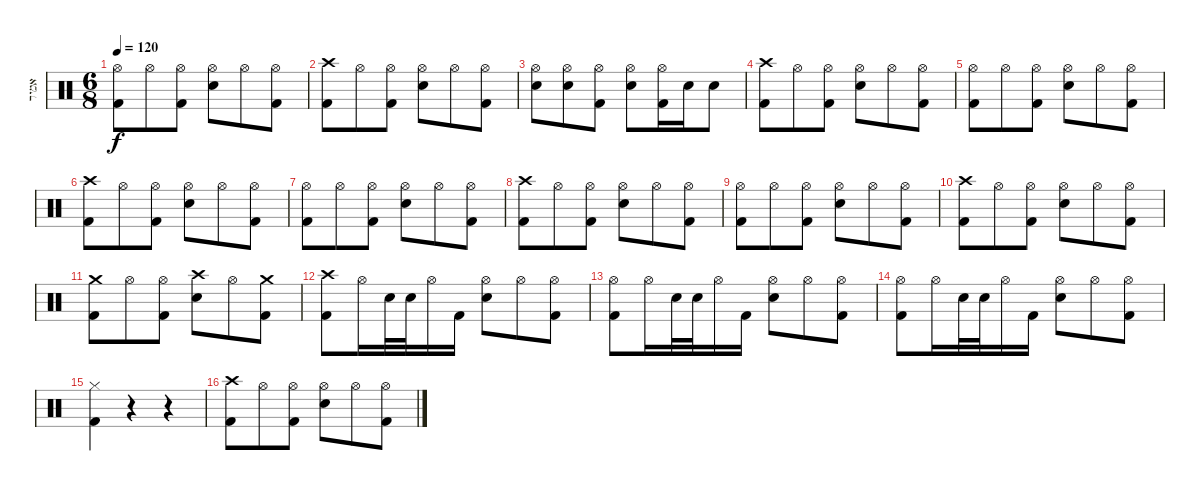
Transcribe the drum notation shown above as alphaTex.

\track ("אמיר" "אמיר") {instrument percussion}
\staff {score}
\articulation defaults
\ts (6 8)
\tempo 120
\clef neutral
\ks c
("Hi-Hat (open)" "Kick (hit) 2").8{dy f} "Hi-Hat (open)".8 ("Hi-Hat (open)" "Kick (hit) 2").8 ("Hi-Hat (open)" "Snare (hit) 2").8 "Hi-Hat (open)".8 ("Hi-Hat (open)" "Kick (hit) 2").8 |
("Crash high (hit)" "Kick (hit) 2").8 "Hi-Hat (open)".8 ("Hi-Hat (open)" "Kick (hit) 2").8 ("Hi-Hat (open)" "Snare (hit) 2").8 "Hi-Hat (open)".8 ("Hi-Hat (open)" "Kick (hit) 2").8 |
("Hi-Hat (open)" "Snare (hit) 2").8 ("Hi-Hat (open)" "Snare (hit) 2").8 ("Hi-Hat (open)" "Kick (hit) 2").8 ("Hi-Hat (open)" "Snare (hit) 2").8 ("Hi-Hat (open)" "Kick (hit) 2").16 "Snare (hit) 2".16 "Snare (hit) 2".8 |
("Crash high (hit)" "Kick (hit) 2").8 "Hi-Hat (open)".8 ("Hi-Hat (open)" "Kick (hit) 2").8 ("Hi-Hat (open)" "Snare (hit) 2").8 "Hi-Hat (open)".8 ("Hi-Hat (open)" "Kick (hit) 2").8 |
("Hi-Hat (open)" "Kick (hit) 2").8 "Hi-Hat (open)".8 ("Hi-Hat (open)" "Kick (hit) 2").8 ("Hi-Hat (open)" "Snare (hit) 2").8 "Hi-Hat (open)".8 ("Hi-Hat (open)" "Kick (hit) 2").8 |
("Crash high (hit)" "Kick (hit) 2").8 "Hi-Hat (open)".8 ("Hi-Hat (open)" "Kick (hit) 2").8 ("Hi-Hat (open)" "Snare (hit) 2").8 "Hi-Hat (open)".8 ("Hi-Hat (open)" "Kick (hit) 2").8 |
("Hi-Hat (open)" "Kick (hit) 2").8 "Hi-Hat (open)".8 ("Hi-Hat (open)" "Kick (hit) 2").8 ("Hi-Hat (open)" "Snare (hit) 2").8 "Hi-Hat (open)".8 ("Hi-Hat (open)" "Kick (hit) 2").8 |
("Crash high (hit)" "Kick (hit) 2").8 "Hi-Hat (open)".8 ("Hi-Hat (open)" "Kick (hit) 2").8 ("Hi-Hat (open)" "Snare (hit) 2").8 "Hi-Hat (open)".8 ("Hi-Hat (open)" "Kick (hit) 2").8 |
("Hi-Hat (open)" "Kick (hit) 2").8 "Hi-Hat (open)".8 ("Hi-Hat (open)" "Kick (hit) 2").8 ("Hi-Hat (open)" "Snare (hit) 2").8 "Hi-Hat (open)".8 ("Hi-Hat (open)" "Kick (hit) 2").8 |
("Crash high (hit)" "Kick (hit) 2").8 "Hi-Hat (open)".8 ("Hi-Hat (open)" "Kick (hit) 2").8 ("Hi-Hat (open)" "Snare (hit) 2").8 "Hi-Hat (open)".8 ("Hi-Hat (open)" "Kick (hit) 2").8 |
("Crash medium (hit)" "Kick (hit) 2").8 "Hi-Hat (open)".8 ("Hi-Hat (open)" "Kick (hit) 2").8 ("Crash high (hit)" "Snare (hit) 2").8 "Hi-Hat (open)".8 ("Crash medium (hit)" "Kick (hit) 2").8 |
("Crash high (hit)" "Kick (hit) 2").8 "Hi-Hat (open)".16 "Snare (hit) 2".32 "Snare (hit) 2".32 "Hi-Hat (open)".16 "Kick (hit) 2".16 ("Hi-Hat (open)" "Snare (hit) 2").8 "Hi-Hat (open)".8 ("Hi-Hat (open)" "Kick (hit) 2").8 |
("Hi-Hat (open)" "Kick (hit) 2").8 "Hi-Hat (open)".16 "Snare (hit) 2".32 "Snare (hit) 2".32 "Hi-Hat (open)".16 "Kick (hit) 2".16 ("Hi-Hat (open)" "Snare (hit) 2").8 "Hi-Hat (open)".8 ("Hi-Hat (open)" "Kick (hit) 2").8 |
("Hi-Hat (open)" "Kick (hit) 2").8 "Hi-Hat (open)".16 "Snare (hit) 2".32 "Snare (hit) 2".32 "Hi-Hat (open)".16 "Kick (hit) 2".16 ("Hi-Hat (open)" "Snare (hit) 2").8 "Hi-Hat (open)".8 ("Hi-Hat (open)" "Kick (hit) 2").8 |
("Hi-Hat (closed)" "Kick (hit) 2").4 r.4 r.4 |
("Crash high (hit)" "Kick (hit) 2").8 "Hi-Hat (open)".8 ("Hi-Hat (open)" "Kick (hit) 2").8 ("Hi-Hat (open)" "Snare (hit) 2").8 "Hi-Hat (open)".8 ("Hi-Hat (open)" "Kick (hit) 2").8
